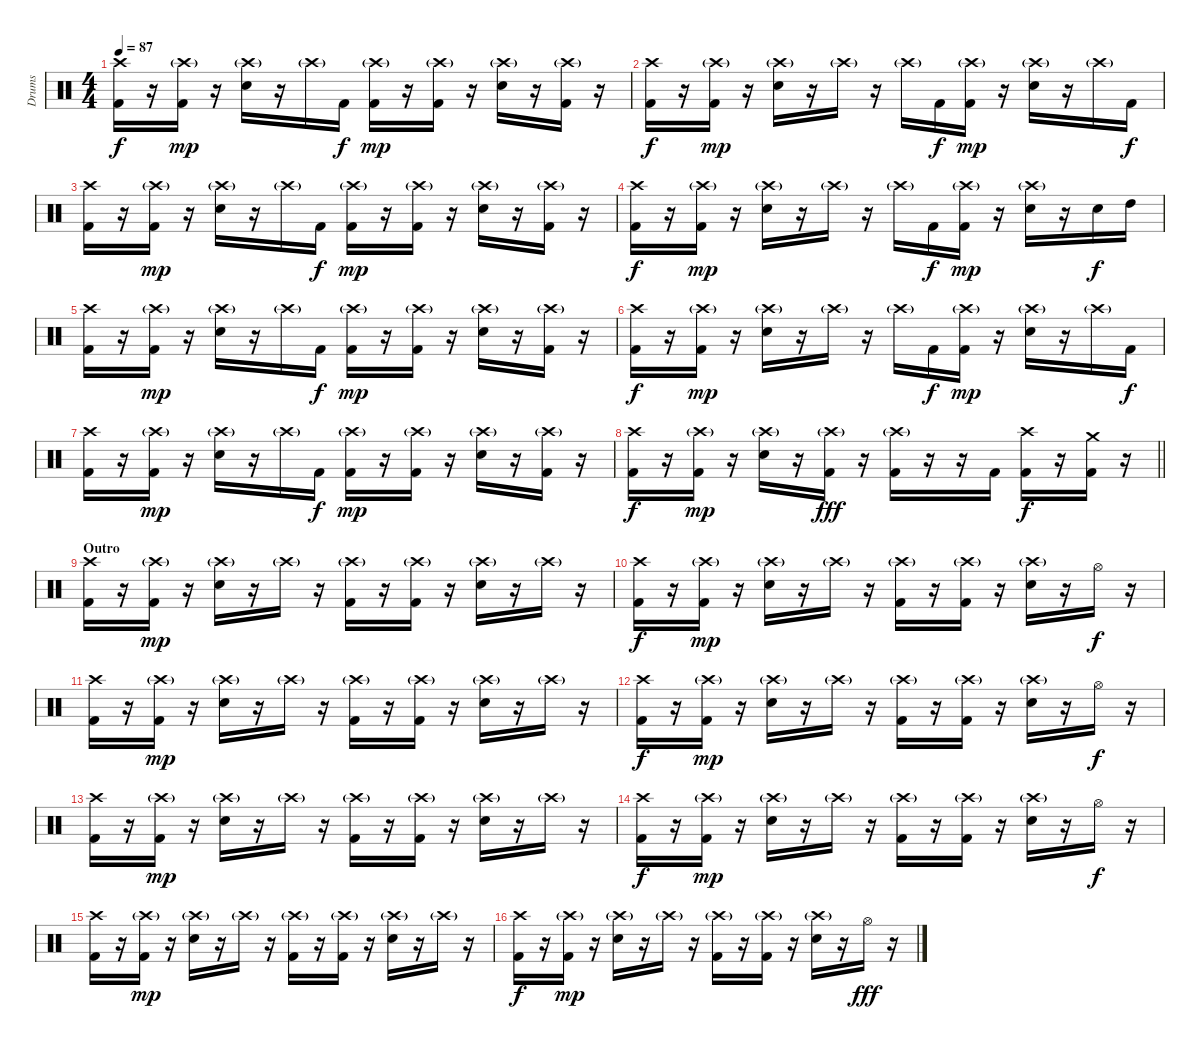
\track ("Drums" "Drums") {instrument percussion}
\staff {score}
\articulation defaults
\ts (4 4)
\tempo 87
\clef neutral
\ks c
("Crash high (hit)" "Kick (hit) 2").16{dy f} r.16 ("Crash high (hit)"{g} "Kick (hit) 2").16{dy mp} r.16 ("Crash high (hit)"{g} "Snare (hit) 2").16 r.16 "Crash high (hit)"{g}.16 "Kick (hit) 2".16{dy f} ("Crash high (hit)"{g} "Kick (hit) 2").16{dy mp} r.16 ("Crash high (hit)"{g} "Kick (hit) 2").16 r.16 ("Crash high (hit)"{g} "Snare (hit) 2").16 r.16 ("Crash high (hit)"{g} "Kick (hit) 2").16 r.16 |
("Crash high (hit)" "Kick (hit) 2").16{dy f} r.16 ("Crash high (hit)"{g} "Kick (hit) 2").16{dy mp} r.16 ("Crash high (hit)"{g} "Snare (hit) 2").16 r.16 "Crash high (hit)"{g}.16 r.16 "Crash high (hit)"{g}.16 "Kick (hit) 2".16{dy f} ("Crash high (hit)"{g} "Kick (hit) 2").16{dy mp} r.16 ("Crash high (hit)"{g} "Snare (hit) 2").16 r.16 "Crash high (hit)"{g}.16 "Kick (hit) 2".16{dy f} |
("Crash high (hit)" "Kick (hit) 2").16 r.16 ("Crash high (hit)"{g} "Kick (hit) 2").16{dy mp} r.16 ("Crash high (hit)"{g} "Snare (hit) 2").16 r.16 "Crash high (hit)"{g}.16 "Kick (hit) 2".16{dy f} ("Crash high (hit)"{g} "Kick (hit) 2").16{dy mp} r.16 ("Crash high (hit)"{g} "Kick (hit) 2").16 r.16 ("Crash high (hit)"{g} "Snare (hit) 2").16 r.16 ("Crash high (hit)"{g} "Kick (hit) 2").16 r.16 |
("Crash high (hit)" "Kick (hit) 2").16{dy f} r.16 ("Crash high (hit)"{g} "Kick (hit) 2").16{dy mp} r.16 ("Crash high (hit)"{g} "Snare (hit) 2").16 r.16 "Crash high (hit)"{g}.16 r.16 "Crash high (hit)"{g}.16 "Kick (hit) 2".16{dy f} ("Crash high (hit)"{g} "Kick (hit) 2").16{dy mp} r.16 ("Crash high (hit)"{g} "Snare (hit) 2").16 r.16 "Snare (hit) 2".16{dy f} "High Tom (hit)".16 |
("Crash high (hit)" "Kick (hit) 2").16 r.16 ("Crash high (hit)"{g} "Kick (hit) 2").16{dy mp} r.16 ("Crash high (hit)"{g} "Snare (hit) 2").16 r.16 "Crash high (hit)"{g}.16 "Kick (hit) 2".16{dy f} ("Crash high (hit)"{g} "Kick (hit) 2").16{dy mp} r.16 ("Crash high (hit)"{g} "Kick (hit) 2").16 r.16 ("Crash high (hit)"{g} "Snare (hit) 2").16 r.16 ("Crash high (hit)"{g} "Kick (hit) 2").16 r.16 |
("Crash high (hit)" "Kick (hit) 2").16{dy f} r.16 ("Crash high (hit)"{g} "Kick (hit) 2").16{dy mp} r.16 ("Crash high (hit)"{g} "Snare (hit) 2").16 r.16 "Crash high (hit)"{g}.16 r.16 "Crash high (hit)"{g}.16 "Kick (hit) 2".16{dy f} ("Crash high (hit)"{g} "Kick (hit) 2").16{dy mp} r.16 ("Crash high (hit)"{g} "Snare (hit) 2").16 r.16 "Crash high (hit)"{g}.16 "Kick (hit) 2".16{dy f} |
("Crash high (hit)" "Kick (hit) 2").16 r.16 ("Crash high (hit)"{g} "Kick (hit) 2").16{dy mp} r.16 ("Crash high (hit)"{g} "Snare (hit) 2").16 r.16 "Crash high (hit)"{g}.16 "Kick (hit) 2".16{dy f} ("Crash high (hit)"{g} "Kick (hit) 2").16{dy mp} r.16 ("Crash high (hit)"{g} "Kick (hit) 2").16 r.16 ("Crash high (hit)"{g} "Snare (hit) 2").16 r.16 ("Crash high (hit)"{g} "Kick (hit) 2").16 r.16 |
\barLineRight lightlight
("Crash high (hit)" "Kick (hit) 2").16{dy f} r.16 ("Crash high (hit)"{g} "Kick (hit) 2").16{dy mp} r.16 ("Crash high (hit)"{g} "Snare (hit) 2").16 r.16 ("Crash high (hit)"{g} "Kick (hit) 2").16{dy fff} r.16 ("Crash high (hit)"{g} "Kick (hit) 2").16 r.16 r.16 "Kick (hit) 2".16 ("Crash high (hit)" "Kick (hit) 2").16{dy f} r.16 ("Crash medium (hit)" "Kick (hit) 2").16 r.16 |
\section ("" "Outro")
("Crash high (hit)" "Kick (hit) 2").16 r.16 ("Crash high (hit)"{g} "Kick (hit) 2").16{dy mp} r.16 ("Crash high (hit)"{g} "Snare (hit) 2").16 r.16 "Crash high (hit)"{g}.16 r.16 ("Crash high (hit)"{g} "Kick (hit) 2").16 r.16 ("Crash high (hit)"{g} "Kick (hit) 2").16 r.16 ("Crash high (hit)"{g} "Snare (hit) 2").16 r.16 "Crash high (hit)"{g}.16 r.16 |
("Crash high (hit)" "Kick (hit) 2").16{dy f} r.16 ("Crash high (hit)"{g} "Kick (hit) 2").16{dy mp} r.16 ("Crash high (hit)"{g} "Snare (hit) 2").16 r.16 "Crash high (hit)"{g}.16 r.16 ("Crash high (hit)"{g} "Kick (hit) 2").16 r.16 ("Crash high (hit)"{g} "Kick (hit) 2").16 r.16 ("Crash high (hit)"{g} "Snare (hit) 2").16 r.16 "Hi-Hat (open)".16{dy f} r.16 |
("Crash high (hit)" "Kick (hit) 2").16 r.16 ("Crash high (hit)"{g} "Kick (hit) 2").16{dy mp} r.16 ("Crash high (hit)"{g} "Snare (hit) 2").16 r.16 "Crash high (hit)"{g}.16 r.16 ("Crash high (hit)"{g} "Kick (hit) 2").16 r.16 ("Crash high (hit)"{g} "Kick (hit) 2").16 r.16 ("Crash high (hit)"{g} "Snare (hit) 2").16 r.16 "Crash high (hit)"{g}.16 r.16 |
("Crash high (hit)" "Kick (hit) 2").16{dy f} r.16 ("Crash high (hit)"{g} "Kick (hit) 2").16{dy mp} r.16 ("Crash high (hit)"{g} "Snare (hit) 2").16 r.16 "Crash high (hit)"{g}.16 r.16 ("Crash high (hit)"{g} "Kick (hit) 2").16 r.16 ("Crash high (hit)"{g} "Kick (hit) 2").16 r.16 ("Crash high (hit)"{g} "Snare (hit) 2").16 r.16 "Hi-Hat (open)".16{dy f} r.16 |
("Crash high (hit)" "Kick (hit) 2").16 r.16 ("Crash high (hit)"{g} "Kick (hit) 2").16{dy mp} r.16 ("Crash high (hit)"{g} "Snare (hit) 2").16 r.16 "Crash high (hit)"{g}.16 r.16 ("Crash high (hit)"{g} "Kick (hit) 2").16 r.16 ("Crash high (hit)"{g} "Kick (hit) 2").16 r.16 ("Crash high (hit)"{g} "Snare (hit) 2").16 r.16 "Crash high (hit)"{g}.16 r.16 |
("Crash high (hit)" "Kick (hit) 2").16{dy f} r.16 ("Crash high (hit)"{g} "Kick (hit) 2").16{dy mp} r.16 ("Crash high (hit)"{g} "Snare (hit) 2").16 r.16 "Crash high (hit)"{g}.16 r.16 ("Crash high (hit)"{g} "Kick (hit) 2").16 r.16 ("Crash high (hit)"{g} "Kick (hit) 2").16 r.16 ("Crash high (hit)"{g} "Snare (hit) 2").16 r.16 "Hi-Hat (open)".16{dy f} r.16 |
("Crash high (hit)" "Kick (hit) 2").16 r.16 ("Crash high (hit)"{g} "Kick (hit) 2").16{dy mp} r.16 ("Crash high (hit)"{g} "Snare (hit) 2").16 r.16 "Crash high (hit)"{g}.16 r.16 ("Crash high (hit)"{g} "Kick (hit) 2").16 r.16 ("Crash high (hit)"{g} "Kick (hit) 2").16 r.16 ("Crash high (hit)"{g} "Snare (hit) 2").16 r.16 "Crash high (hit)"{g}.16 r.16 |
("Crash high (hit)" "Kick (hit) 2").16{dy f} r.16 ("Crash high (hit)"{g} "Kick (hit) 2").16{dy mp} r.16 ("Crash high (hit)"{g} "Snare (hit) 2").16 r.16 "Crash high (hit)"{g}.16 r.16 ("Crash high (hit)"{g} "Kick (hit) 2").16 r.16 ("Crash high (hit)"{g} "Kick (hit) 2").16 r.16 ("Crash high (hit)"{g} "Snare (hit) 2").16 r.16 "Hi-Hat (open)".16{dy fff} r.16
